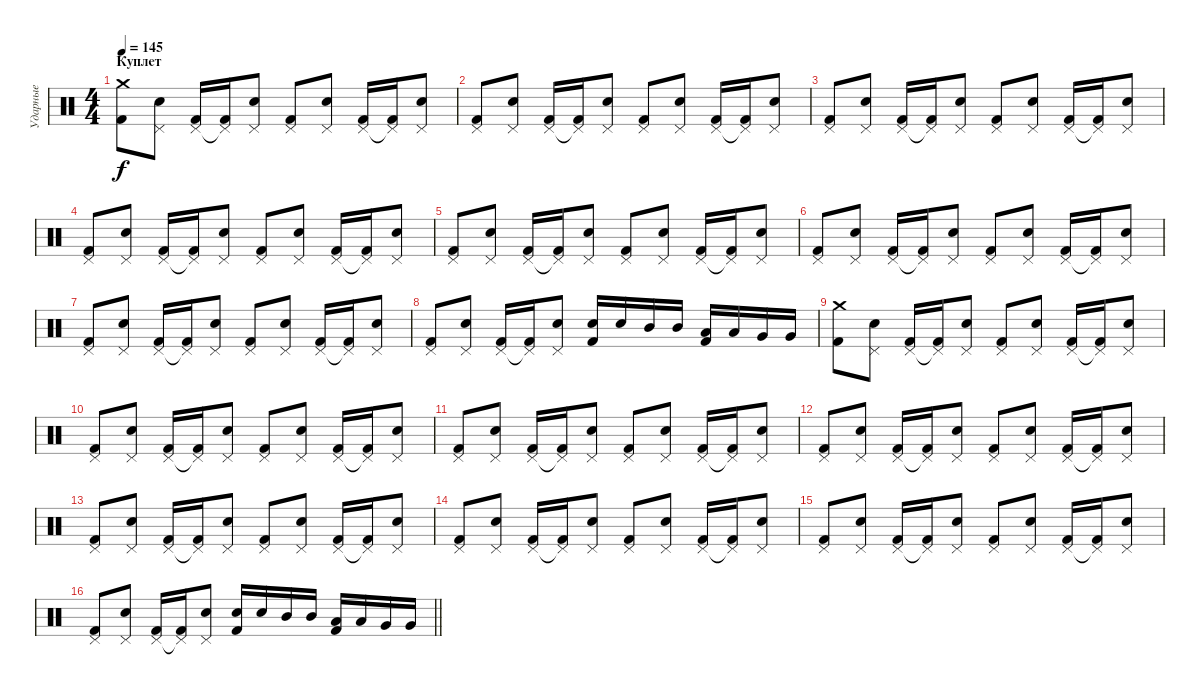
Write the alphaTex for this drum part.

\track ("Ударные" "Ударные") {instrument percussion}
\staff {score}
\articulation defaults
\ts (4 4)
\section ("" "Куплет")
\tempo 145
\clef neutral
\ks c
("Crash medium (hit)" "Kick (hit) 2").8{dy f} ("Pedal Hi-Hat (hit)" "Electric Snare (hit)").8 ("Pedal Hi-Hat (hit)" "Kick (hit) 2").16 ("Pedal Hi-Hat (hit)"{t} "Kick (hit) 2").16 ("Pedal Hi-Hat (hit)" "Electric Snare (hit)").8 ("Pedal Hi-Hat (hit)" "Kick (hit) 2").8 ("Pedal Hi-Hat (hit)" "Electric Snare (hit)").8 ("Pedal Hi-Hat (hit)" "Kick (hit) 2").16 ("Pedal Hi-Hat (hit)"{t} "Kick (hit) 2").16 ("Pedal Hi-Hat (hit)" "Electric Snare (hit)").8 |
("Pedal Hi-Hat (hit)" "Kick (hit) 2").8 ("Pedal Hi-Hat (hit)" "Electric Snare (hit)").8 ("Pedal Hi-Hat (hit)" "Kick (hit) 2").16 ("Pedal Hi-Hat (hit)"{t} "Kick (hit) 2").16 ("Pedal Hi-Hat (hit)" "Electric Snare (hit)").8 ("Pedal Hi-Hat (hit)" "Kick (hit) 2").8 ("Pedal Hi-Hat (hit)" "Electric Snare (hit)").8 ("Pedal Hi-Hat (hit)" "Kick (hit) 2").16 ("Pedal Hi-Hat (hit)"{t} "Kick (hit) 2").16 ("Pedal Hi-Hat (hit)" "Electric Snare (hit)").8 |
("Pedal Hi-Hat (hit)" "Kick (hit) 2").8 ("Pedal Hi-Hat (hit)" "Electric Snare (hit)").8 ("Pedal Hi-Hat (hit)" "Kick (hit) 2").16 ("Pedal Hi-Hat (hit)"{t} "Kick (hit) 2").16 ("Pedal Hi-Hat (hit)" "Electric Snare (hit)").8 ("Pedal Hi-Hat (hit)" "Kick (hit) 2").8 ("Pedal Hi-Hat (hit)" "Electric Snare (hit)").8 ("Pedal Hi-Hat (hit)" "Kick (hit) 2").16 ("Pedal Hi-Hat (hit)"{t} "Kick (hit) 2").16 ("Pedal Hi-Hat (hit)" "Electric Snare (hit)").8 |
("Pedal Hi-Hat (hit)" "Kick (hit) 2").8 ("Pedal Hi-Hat (hit)" "Electric Snare (hit)").8 ("Pedal Hi-Hat (hit)" "Kick (hit) 2").16 ("Pedal Hi-Hat (hit)"{t} "Kick (hit) 2").16 ("Pedal Hi-Hat (hit)" "Electric Snare (hit)").8 ("Pedal Hi-Hat (hit)" "Kick (hit) 2").8 ("Pedal Hi-Hat (hit)" "Electric Snare (hit)").8 ("Pedal Hi-Hat (hit)" "Kick (hit) 2").16 ("Pedal Hi-Hat (hit)"{t} "Kick (hit) 2").16 ("Pedal Hi-Hat (hit)" "Electric Snare (hit)").8 |
("Pedal Hi-Hat (hit)" "Kick (hit) 2").8 ("Pedal Hi-Hat (hit)" "Electric Snare (hit)").8 ("Pedal Hi-Hat (hit)" "Kick (hit) 2").16 ("Pedal Hi-Hat (hit)"{t} "Kick (hit) 2").16 ("Pedal Hi-Hat (hit)" "Electric Snare (hit)").8 ("Pedal Hi-Hat (hit)" "Kick (hit) 2").8 ("Pedal Hi-Hat (hit)" "Electric Snare (hit)").8 ("Pedal Hi-Hat (hit)" "Kick (hit) 2").16 ("Pedal Hi-Hat (hit)"{t} "Kick (hit) 2").16 ("Pedal Hi-Hat (hit)" "Electric Snare (hit)").8 |
("Pedal Hi-Hat (hit)" "Kick (hit) 2").8 ("Pedal Hi-Hat (hit)" "Electric Snare (hit)").8 ("Pedal Hi-Hat (hit)" "Kick (hit) 2").16 ("Pedal Hi-Hat (hit)"{t} "Kick (hit) 2").16 ("Pedal Hi-Hat (hit)" "Electric Snare (hit)").8 ("Pedal Hi-Hat (hit)" "Kick (hit) 2").8 ("Pedal Hi-Hat (hit)" "Electric Snare (hit)").8 ("Pedal Hi-Hat (hit)" "Kick (hit) 2").16 ("Pedal Hi-Hat (hit)"{t} "Kick (hit) 2").16 ("Pedal Hi-Hat (hit)" "Electric Snare (hit)").8 |
("Pedal Hi-Hat (hit)" "Kick (hit) 2").8 ("Pedal Hi-Hat (hit)" "Electric Snare (hit)").8 ("Pedal Hi-Hat (hit)" "Kick (hit) 2").16 ("Pedal Hi-Hat (hit)"{t} "Kick (hit) 2").16 ("Pedal Hi-Hat (hit)" "Electric Snare (hit)").8 ("Pedal Hi-Hat (hit)" "Kick (hit) 2").8 ("Pedal Hi-Hat (hit)" "Electric Snare (hit)").8 ("Pedal Hi-Hat (hit)" "Kick (hit) 2").16 ("Pedal Hi-Hat (hit)"{t} "Kick (hit) 2").16 ("Pedal Hi-Hat (hit)" "Electric Snare (hit)").8 |
("Pedal Hi-Hat (hit)" "Kick (hit) 2").8 ("Pedal Hi-Hat (hit)" "Electric Snare (hit)").8 ("Pedal Hi-Hat (hit)" "Kick (hit) 2").16 ("Pedal Hi-Hat (hit)"{t} "Kick (hit) 2").16 ("Pedal Hi-Hat (hit)" "Electric Snare (hit)").8 ("Electric Snare (hit)" "Kick (hit) 2").16 "Electric Snare (hit)".16 "Mid Tom (hit)".16 "Mid Tom (hit)".16 ("Low Tom (hit)" "Kick (hit) 2").16 "Low Tom (hit)".16 "Very Low Tom (hit)".16 "Very Low Tom (hit)".16 |
("Crash medium (hit)" "Kick (hit) 2").8 ("Pedal Hi-Hat (hit)" "Electric Snare (hit)").8 ("Pedal Hi-Hat (hit)" "Kick (hit) 2").16 ("Pedal Hi-Hat (hit)"{t} "Kick (hit) 2").16 ("Pedal Hi-Hat (hit)" "Electric Snare (hit)").8 ("Pedal Hi-Hat (hit)" "Kick (hit) 2").8 ("Pedal Hi-Hat (hit)" "Electric Snare (hit)").8 ("Pedal Hi-Hat (hit)" "Kick (hit) 2").16 ("Pedal Hi-Hat (hit)"{t} "Kick (hit) 2").16 ("Pedal Hi-Hat (hit)" "Electric Snare (hit)").8 |
("Pedal Hi-Hat (hit)" "Kick (hit) 2").8 ("Pedal Hi-Hat (hit)" "Electric Snare (hit)").8 ("Pedal Hi-Hat (hit)" "Kick (hit) 2").16 ("Pedal Hi-Hat (hit)"{t} "Kick (hit) 2").16 ("Pedal Hi-Hat (hit)" "Electric Snare (hit)").8 ("Pedal Hi-Hat (hit)" "Kick (hit) 2").8 ("Pedal Hi-Hat (hit)" "Electric Snare (hit)").8 ("Pedal Hi-Hat (hit)" "Kick (hit) 2").16 ("Pedal Hi-Hat (hit)"{t} "Kick (hit) 2").16 ("Pedal Hi-Hat (hit)" "Electric Snare (hit)").8 |
("Pedal Hi-Hat (hit)" "Kick (hit) 2").8 ("Pedal Hi-Hat (hit)" "Electric Snare (hit)").8 ("Pedal Hi-Hat (hit)" "Kick (hit) 2").16 ("Pedal Hi-Hat (hit)"{t} "Kick (hit) 2").16 ("Pedal Hi-Hat (hit)" "Electric Snare (hit)").8 ("Pedal Hi-Hat (hit)" "Kick (hit) 2").8 ("Pedal Hi-Hat (hit)" "Electric Snare (hit)").8 ("Pedal Hi-Hat (hit)" "Kick (hit) 2").16 ("Pedal Hi-Hat (hit)"{t} "Kick (hit) 2").16 ("Pedal Hi-Hat (hit)" "Electric Snare (hit)").8 |
("Pedal Hi-Hat (hit)" "Kick (hit) 2").8 ("Pedal Hi-Hat (hit)" "Electric Snare (hit)").8 ("Pedal Hi-Hat (hit)" "Kick (hit) 2").16 ("Pedal Hi-Hat (hit)"{t} "Kick (hit) 2").16 ("Pedal Hi-Hat (hit)" "Electric Snare (hit)").8 ("Pedal Hi-Hat (hit)" "Kick (hit) 2").8 ("Pedal Hi-Hat (hit)" "Electric Snare (hit)").8 ("Pedal Hi-Hat (hit)" "Kick (hit) 2").16 ("Pedal Hi-Hat (hit)"{t} "Kick (hit) 2").16 ("Pedal Hi-Hat (hit)" "Electric Snare (hit)").8 |
("Pedal Hi-Hat (hit)" "Kick (hit) 2").8 ("Pedal Hi-Hat (hit)" "Electric Snare (hit)").8 ("Pedal Hi-Hat (hit)" "Kick (hit) 2").16 ("Pedal Hi-Hat (hit)"{t} "Kick (hit) 2").16 ("Pedal Hi-Hat (hit)" "Electric Snare (hit)").8 ("Pedal Hi-Hat (hit)" "Kick (hit) 2").8 ("Pedal Hi-Hat (hit)" "Electric Snare (hit)").8 ("Pedal Hi-Hat (hit)" "Kick (hit) 2").16 ("Pedal Hi-Hat (hit)"{t} "Kick (hit) 2").16 ("Pedal Hi-Hat (hit)" "Electric Snare (hit)").8 |
("Pedal Hi-Hat (hit)" "Kick (hit) 2").8 ("Pedal Hi-Hat (hit)" "Electric Snare (hit)").8 ("Pedal Hi-Hat (hit)" "Kick (hit) 2").16 ("Pedal Hi-Hat (hit)"{t} "Kick (hit) 2").16 ("Pedal Hi-Hat (hit)" "Electric Snare (hit)").8 ("Pedal Hi-Hat (hit)" "Kick (hit) 2").8 ("Pedal Hi-Hat (hit)" "Electric Snare (hit)").8 ("Pedal Hi-Hat (hit)" "Kick (hit) 2").16 ("Pedal Hi-Hat (hit)"{t} "Kick (hit) 2").16 ("Pedal Hi-Hat (hit)" "Electric Snare (hit)").8 |
("Pedal Hi-Hat (hit)" "Kick (hit) 2").8 ("Pedal Hi-Hat (hit)" "Electric Snare (hit)").8 ("Pedal Hi-Hat (hit)" "Kick (hit) 2").16 ("Pedal Hi-Hat (hit)"{t} "Kick (hit) 2").16 ("Pedal Hi-Hat (hit)" "Electric Snare (hit)").8 ("Pedal Hi-Hat (hit)" "Kick (hit) 2").8 ("Pedal Hi-Hat (hit)" "Electric Snare (hit)").8 ("Pedal Hi-Hat (hit)" "Kick (hit) 2").16 ("Pedal Hi-Hat (hit)"{t} "Kick (hit) 2").16 ("Pedal Hi-Hat (hit)" "Electric Snare (hit)").8 |
\barLineRight lightlight
("Pedal Hi-Hat (hit)" "Kick (hit) 2").8 ("Pedal Hi-Hat (hit)" "Electric Snare (hit)").8 ("Pedal Hi-Hat (hit)" "Kick (hit) 2").16 ("Pedal Hi-Hat (hit)"{t} "Kick (hit) 2").16 ("Pedal Hi-Hat (hit)" "Electric Snare (hit)").8 ("Electric Snare (hit)" "Kick (hit) 2").16 "Electric Snare (hit)".16 "Mid Tom (hit)".16 "Mid Tom (hit)".16 ("Low Tom (hit)" "Kick (hit) 2").16 "Low Tom (hit)".16 "Very Low Tom (hit)".16 "Very Low Tom (hit)".16
